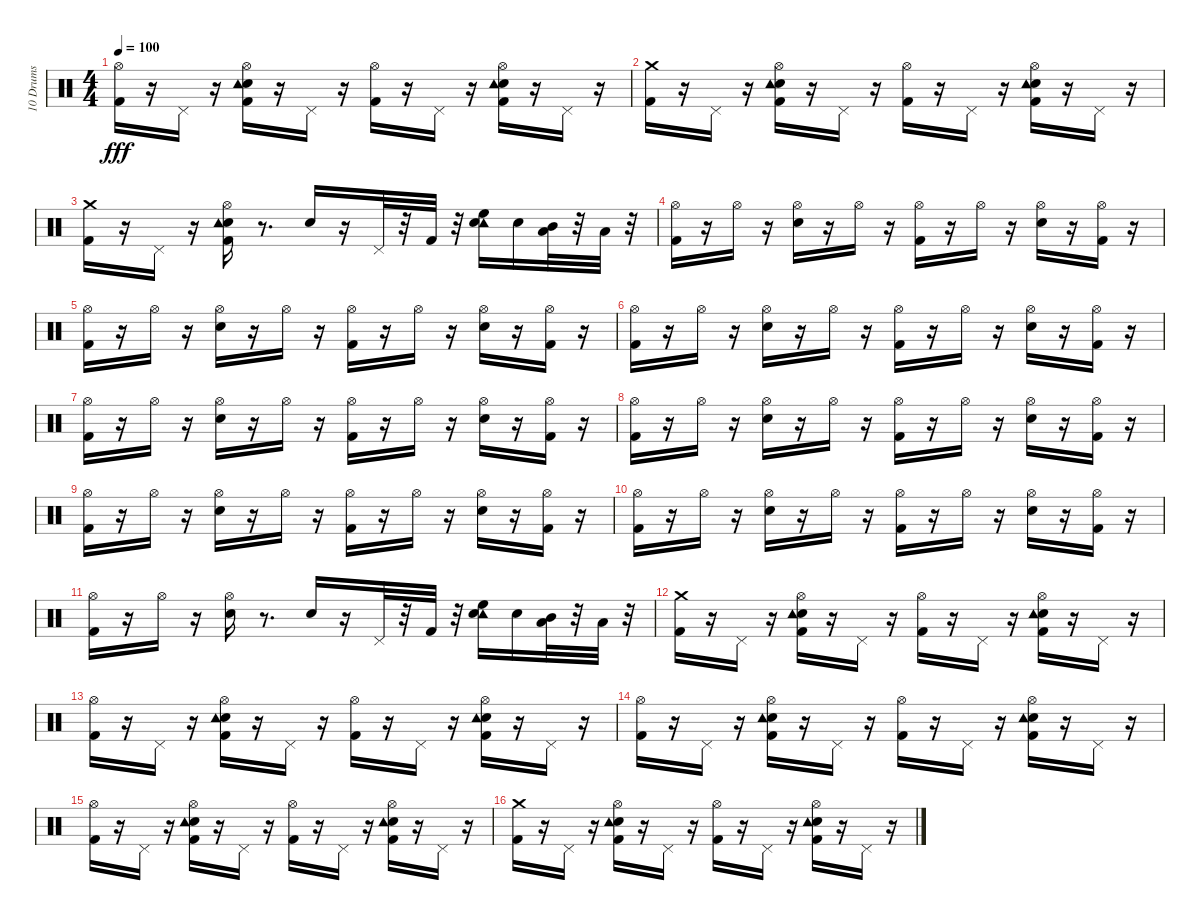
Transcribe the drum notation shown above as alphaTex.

\track ("10 Drums" "10 Drums") {instrument percussion}
\staff {score}
\articulation defaults
\ts (4 4)
\tempo 100
\clef neutral
\ks c
("Hi-Hat (open)" "Kick (hit) 2").16{dy fff} r.16 "Pedal Hi-Hat (hit)".16 r.16 ("Hi-Hat (open)" "Electric Snare (hit)" "Kick (hit) 2" "Tambourine (hit)").16 r.16 "Pedal Hi-Hat (hit)".16 r.16 ("Hi-Hat (open)" "Kick (hit) 2").16 r.16 "Pedal Hi-Hat (hit)".16 r.16 ("Hi-Hat (open)" "Kick (hit) 2" "Electric Snare (hit)" "Tambourine (hit)").16 r.16 "Pedal Hi-Hat (hit)".16 r.16 |
("Kick (hit) 2" "Crash medium (hit)").16 r.16 "Pedal Hi-Hat (hit)".16 r.16 ("Hi-Hat (open)" "Electric Snare (hit)" "Kick (hit) 2" "Tambourine (hit)").16 r.16 "Pedal Hi-Hat (hit)".16 r.16 ("Hi-Hat (open)" "Kick (hit) 2").16 r.16 "Pedal Hi-Hat (hit)".16 r.16 ("Hi-Hat (open)" "Kick (hit) 2" "Electric Snare (hit)" "Tambourine (hit)").16 r.16 "Pedal Hi-Hat (hit)".16 r.16 |
("Kick (hit) 2" "Crash medium (hit)").16 r.16 "Pedal Hi-Hat (hit)".16 r.16 ("Hi-Hat (open)" "Electric Snare (hit)" "Kick (hit) 2" "Tambourine (hit)").16 r.8{d} "Electric Snare (hit)".16 r.16 "Pedal Hi-Hat (hit)".32 r.32 "Kick (hit) 2".32 r.32 ("Tambourine (hit)" "Electric Snare (hit)" "High Floor Tom (hit)").16 "Electric Snare (hit)".16 ("Mid Tom (hit)" "Low Floor Tom (hit)").32 r.32 "Low Floor Tom (hit)".32 r.32 |
("Hi-Hat (open)" "Kick (hit) 2").16 r.16 "Hi-Hat (open)".16 r.16 ("Hi-Hat (open)" "Snare (hit) 2").16 r.16 "Hi-Hat (open)".16 r.16 ("Hi-Hat (open)" "Kick (hit) 2").16 r.16 "Hi-Hat (open)".16 r.16 ("Hi-Hat (open)" "Snare (hit) 2").16 r.16 ("Hi-Hat (open)" "Kick (hit) 2").16 r.16 |
("Hi-Hat (open)" "Kick (hit) 2").16 r.16 "Hi-Hat (open)".16 r.16 ("Hi-Hat (open)" "Snare (hit) 2").16 r.16 "Hi-Hat (open)".16 r.16 ("Hi-Hat (open)" "Kick (hit) 2").16 r.16 "Hi-Hat (open)".16 r.16 ("Hi-Hat (open)" "Snare (hit) 2").16 r.16 ("Hi-Hat (open)" "Kick (hit) 2").16 r.16 |
("Hi-Hat (open)" "Kick (hit) 2").16 r.16 "Hi-Hat (open)".16 r.16 ("Hi-Hat (open)" "Snare (hit) 2").16 r.16 "Hi-Hat (open)".16 r.16 ("Hi-Hat (open)" "Kick (hit) 2").16 r.16 "Hi-Hat (open)".16 r.16 ("Hi-Hat (open)" "Snare (hit) 2").16 r.16 ("Hi-Hat (open)" "Kick (hit) 2").16 r.16 |
("Hi-Hat (open)" "Kick (hit) 2").16 r.16 "Hi-Hat (open)".16 r.16 ("Hi-Hat (open)" "Snare (hit) 2").16 r.16 "Hi-Hat (open)".16 r.16 ("Hi-Hat (open)" "Kick (hit) 2").16 r.16 "Hi-Hat (open)".16 r.16 ("Hi-Hat (open)" "Snare (hit) 2").16 r.16 ("Hi-Hat (open)" "Kick (hit) 2").16 r.16 |
("Hi-Hat (open)" "Kick (hit) 2").16 r.16 "Hi-Hat (open)".16 r.16 ("Hi-Hat (open)" "Snare (hit) 2").16 r.16 "Hi-Hat (open)".16 r.16 ("Hi-Hat (open)" "Kick (hit) 2").16 r.16 "Hi-Hat (open)".16 r.16 ("Hi-Hat (open)" "Snare (hit) 2").16 r.16 ("Hi-Hat (open)" "Kick (hit) 2").16 r.16 |
("Hi-Hat (open)" "Kick (hit) 2").16 r.16 "Hi-Hat (open)".16 r.16 ("Hi-Hat (open)" "Snare (hit) 2").16 r.16 "Hi-Hat (open)".16 r.16 ("Hi-Hat (open)" "Kick (hit) 2").16 r.16 "Hi-Hat (open)".16 r.16 ("Hi-Hat (open)" "Snare (hit) 2").16 r.16 ("Hi-Hat (open)" "Kick (hit) 2").16 r.16 |
("Hi-Hat (open)" "Kick (hit) 2").16 r.16 "Hi-Hat (open)".16 r.16 ("Hi-Hat (open)" "Snare (hit) 2").16 r.16 "Hi-Hat (open)".16 r.16 ("Hi-Hat (open)" "Kick (hit) 2").16 r.16 "Hi-Hat (open)".16 r.16 ("Hi-Hat (open)" "Snare (hit) 2").16 r.16 ("Hi-Hat (open)" "Kick (hit) 2").16 r.16 |
("Hi-Hat (open)" "Kick (hit) 2").16 r.16 "Hi-Hat (open)".16 r.16 ("Hi-Hat (open)" "Snare (hit) 2").16 r.8{d} "Electric Snare (hit)".16 r.16 "Pedal Hi-Hat (hit)".32 r.32 "Kick (hit) 2".32 r.32 ("Tambourine (hit)" "Electric Snare (hit)" "High Floor Tom (hit)").16 "Electric Snare (hit)".16 ("Mid Tom (hit)" "Low Floor Tom (hit)").32 r.32 "Low Floor Tom (hit)".32 r.32 |
("Kick (hit) 2" "Crash medium (hit)").16 r.16 "Pedal Hi-Hat (hit)".16 r.16 ("Hi-Hat (open)" "Electric Snare (hit)" "Kick (hit) 2" "Tambourine (hit)").16 r.16 "Pedal Hi-Hat (hit)".16 r.16 ("Hi-Hat (open)" "Kick (hit) 2").16 r.16 "Pedal Hi-Hat (hit)".16 r.16 ("Hi-Hat (open)" "Kick (hit) 2" "Electric Snare (hit)" "Tambourine (hit)").16 r.16 "Pedal Hi-Hat (hit)".16 r.16 |
("Hi-Hat (open)" "Kick (hit) 2").16 r.16 "Pedal Hi-Hat (hit)".16 r.16 ("Hi-Hat (open)" "Electric Snare (hit)" "Kick (hit) 2" "Tambourine (hit)").16 r.16 "Pedal Hi-Hat (hit)".16 r.16 ("Hi-Hat (open)" "Kick (hit) 2").16 r.16 "Pedal Hi-Hat (hit)".16 r.16 ("Hi-Hat (open)" "Kick (hit) 2" "Electric Snare (hit)" "Tambourine (hit)").16 r.16 "Pedal Hi-Hat (hit)".16 r.16 |
("Hi-Hat (open)" "Kick (hit) 2").16 r.16 "Pedal Hi-Hat (hit)".16 r.16 ("Hi-Hat (open)" "Electric Snare (hit)" "Kick (hit) 2" "Tambourine (hit)").16 r.16 "Pedal Hi-Hat (hit)".16 r.16 ("Hi-Hat (open)" "Kick (hit) 2").16 r.16 "Pedal Hi-Hat (hit)".16 r.16 ("Hi-Hat (open)" "Kick (hit) 2" "Electric Snare (hit)" "Tambourine (hit)").16 r.16 "Pedal Hi-Hat (hit)".16 r.16 |
("Hi-Hat (open)" "Kick (hit) 2").16 r.16 "Pedal Hi-Hat (hit)".16 r.16 ("Hi-Hat (open)" "Electric Snare (hit)" "Kick (hit) 2" "Tambourine (hit)").16 r.16 "Pedal Hi-Hat (hit)".16 r.16 ("Hi-Hat (open)" "Kick (hit) 2").16 r.16 "Pedal Hi-Hat (hit)".16 r.16 ("Hi-Hat (open)" "Kick (hit) 2" "Electric Snare (hit)" "Tambourine (hit)").16 r.16 "Pedal Hi-Hat (hit)".16 r.16 |
("Kick (hit) 2" "Crash medium (hit)").16 r.16 "Pedal Hi-Hat (hit)".16 r.16 ("Hi-Hat (open)" "Electric Snare (hit)" "Kick (hit) 2" "Tambourine (hit)").16 r.16 "Pedal Hi-Hat (hit)".16 r.16 ("Hi-Hat (open)" "Kick (hit) 2").16 r.16 "Pedal Hi-Hat (hit)".16 r.16 ("Hi-Hat (open)" "Kick (hit) 2" "Electric Snare (hit)" "Tambourine (hit)").16 r.16 "Pedal Hi-Hat (hit)".16 r.16
